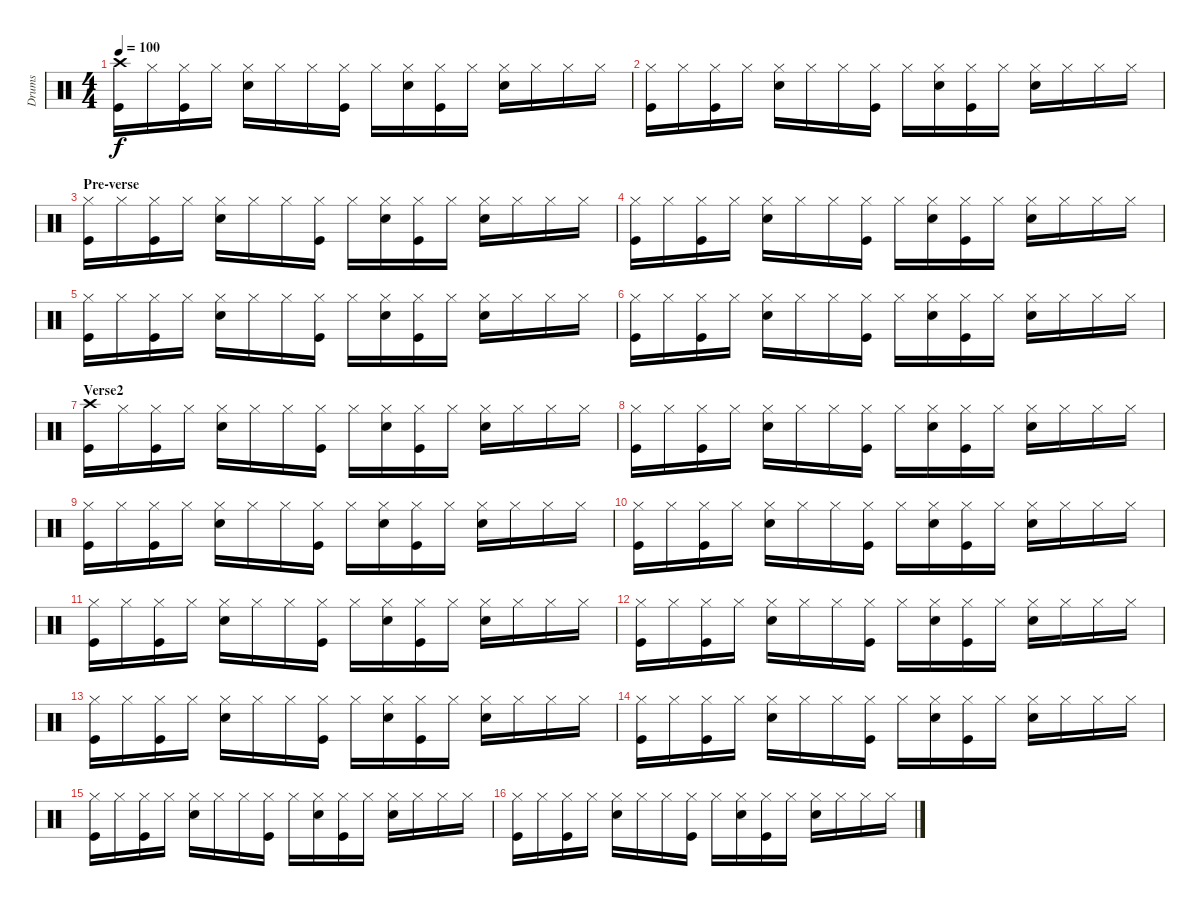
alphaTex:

\track ("Drums" "Drums") {instrument percussion}
\staff {score}
\articulation defaults
\ts (4 4)
\tempo 100
\clef neutral
\ks c
("Crash high (hit)" "Kick (hit)").16{dy f} "Hi-Hat (closed)"{x}.16 ("Hi-Hat (closed)" "Kick (hit)").16 "Hi-Hat (closed)"{x}.16 ("Hi-Hat (closed)" "Electric Snare (hit)").16 "Hi-Hat (closed)"{x}.16 "Hi-Hat (closed)".16 ("Hi-Hat (closed)"{x} "Kick (hit)").16 "Hi-Hat (closed)".16 ("Hi-Hat (closed)"{x} "Electric Snare (hit)").16 ("Hi-Hat (closed)" "Kick (hit)").16 "Hi-Hat (closed)"{x}.16 ("Hi-Hat (closed)" "Electric Snare (hit)").16 "Hi-Hat (closed)"{x}.16 "Hi-Hat (closed)".16 "Hi-Hat (closed)"{x}.16 |
("Hi-Hat (closed)" "Kick (hit)").16 "Hi-Hat (closed)"{x}.16 ("Hi-Hat (closed)" "Kick (hit)").16 "Hi-Hat (closed)"{x}.16 ("Hi-Hat (closed)" "Electric Snare (hit)").16 "Hi-Hat (closed)"{x}.16 "Hi-Hat (closed)".16 ("Hi-Hat (closed)"{x} "Kick (hit)").16 "Hi-Hat (closed)".16 ("Hi-Hat (closed)"{x} "Electric Snare (hit)").16 ("Hi-Hat (closed)" "Kick (hit)").16 "Hi-Hat (closed)"{x}.16 ("Hi-Hat (closed)" "Electric Snare (hit)").16 "Hi-Hat (closed)"{x}.16 "Hi-Hat (closed)".16 "Hi-Hat (closed)"{x}.16 |
\section ("" "Pre-verse")
("Hi-Hat (closed)" "Kick (hit)").16 "Hi-Hat (closed)"{x}.16 ("Hi-Hat (closed)" "Kick (hit)").16 "Hi-Hat (closed)"{x}.16 ("Hi-Hat (closed)" "Electric Snare (hit)").16 "Hi-Hat (closed)"{x}.16 "Hi-Hat (closed)".16 ("Hi-Hat (closed)"{x} "Kick (hit)").16 "Hi-Hat (closed)".16 ("Hi-Hat (closed)"{x} "Electric Snare (hit)").16 ("Hi-Hat (closed)" "Kick (hit)").16 "Hi-Hat (closed)"{x}.16 ("Hi-Hat (closed)" "Electric Snare (hit)").16 "Hi-Hat (closed)"{x}.16 "Hi-Hat (closed)".16 "Hi-Hat (closed)"{x}.16 |
("Hi-Hat (closed)" "Kick (hit)").16 "Hi-Hat (closed)"{x}.16 ("Hi-Hat (closed)" "Kick (hit)").16 "Hi-Hat (closed)"{x}.16 ("Hi-Hat (closed)" "Electric Snare (hit)").16 "Hi-Hat (closed)"{x}.16 "Hi-Hat (closed)".16 ("Hi-Hat (closed)"{x} "Kick (hit)").16 "Hi-Hat (closed)".16 ("Hi-Hat (closed)"{x} "Electric Snare (hit)").16 ("Hi-Hat (closed)" "Kick (hit)").16 "Hi-Hat (closed)"{x}.16 ("Hi-Hat (closed)" "Electric Snare (hit)").16 "Hi-Hat (closed)"{x}.16 "Hi-Hat (closed)".16 "Hi-Hat (closed)"{x}.16 |
("Hi-Hat (closed)" "Kick (hit)").16 "Hi-Hat (closed)"{x}.16 ("Hi-Hat (closed)" "Kick (hit)").16 "Hi-Hat (closed)"{x}.16 ("Hi-Hat (closed)" "Electric Snare (hit)").16 "Hi-Hat (closed)"{x}.16 "Hi-Hat (closed)".16 ("Hi-Hat (closed)"{x} "Kick (hit)").16 "Hi-Hat (closed)".16 ("Hi-Hat (closed)"{x} "Electric Snare (hit)").16 ("Hi-Hat (closed)" "Kick (hit)").16 "Hi-Hat (closed)"{x}.16 ("Hi-Hat (closed)" "Electric Snare (hit)").16 "Hi-Hat (closed)"{x}.16 "Hi-Hat (closed)".16 "Hi-Hat (closed)"{x}.16 |
("Hi-Hat (closed)" "Kick (hit)").16 "Hi-Hat (closed)"{x}.16 ("Hi-Hat (closed)" "Kick (hit)").16 "Hi-Hat (closed)"{x}.16 ("Hi-Hat (closed)" "Electric Snare (hit)").16 "Hi-Hat (closed)"{x}.16 "Hi-Hat (closed)".16 ("Hi-Hat (closed)"{x} "Kick (hit)").16 "Hi-Hat (closed)".16 ("Hi-Hat (closed)"{x} "Electric Snare (hit)").16 ("Hi-Hat (closed)" "Kick (hit)").16 "Hi-Hat (closed)"{x}.16 ("Hi-Hat (closed)" "Electric Snare (hit)").16 "Hi-Hat (closed)"{x}.16 "Hi-Hat (closed)".16 "Hi-Hat (closed)"{x}.16 |
\section ("" "Verse2")
("Crash high (hit)" "Kick (hit)").16 "Hi-Hat (closed)"{x}.16 ("Hi-Hat (closed)" "Kick (hit)").16 "Hi-Hat (closed)"{x}.16 ("Hi-Hat (closed)" "Electric Snare (hit)").16 "Hi-Hat (closed)"{x}.16 "Hi-Hat (closed)".16 ("Hi-Hat (closed)"{x} "Kick (hit)").16 "Hi-Hat (closed)".16 ("Hi-Hat (closed)"{x} "Electric Snare (hit)").16 ("Hi-Hat (closed)" "Kick (hit)").16 "Hi-Hat (closed)"{x}.16 ("Hi-Hat (closed)" "Electric Snare (hit)").16 "Hi-Hat (closed)"{x}.16 "Hi-Hat (closed)".16 "Hi-Hat (closed)"{x}.16 |
("Hi-Hat (closed)" "Kick (hit)").16 "Hi-Hat (closed)"{x}.16 ("Hi-Hat (closed)" "Kick (hit)").16 "Hi-Hat (closed)"{x}.16 ("Hi-Hat (closed)" "Electric Snare (hit)").16 "Hi-Hat (closed)"{x}.16 "Hi-Hat (closed)".16 ("Hi-Hat (closed)"{x} "Kick (hit)").16 "Hi-Hat (closed)".16 ("Hi-Hat (closed)"{x} "Electric Snare (hit)").16 ("Hi-Hat (closed)" "Kick (hit)").16 "Hi-Hat (closed)"{x}.16 ("Hi-Hat (closed)" "Electric Snare (hit)").16 "Hi-Hat (closed)"{x}.16 "Hi-Hat (closed)".16 "Hi-Hat (closed)"{x}.16 |
("Hi-Hat (closed)" "Kick (hit)").16 "Hi-Hat (closed)"{x}.16 ("Hi-Hat (closed)" "Kick (hit)").16 "Hi-Hat (closed)"{x}.16 ("Hi-Hat (closed)" "Electric Snare (hit)").16 "Hi-Hat (closed)"{x}.16 "Hi-Hat (closed)".16 ("Hi-Hat (closed)"{x} "Kick (hit)").16 "Hi-Hat (closed)".16 ("Hi-Hat (closed)"{x} "Electric Snare (hit)").16 ("Hi-Hat (closed)" "Kick (hit)").16 "Hi-Hat (closed)"{x}.16 ("Hi-Hat (closed)" "Electric Snare (hit)").16 "Hi-Hat (closed)"{x}.16 "Hi-Hat (closed)".16 "Hi-Hat (closed)"{x}.16 |
("Hi-Hat (closed)" "Kick (hit)").16 "Hi-Hat (closed)"{x}.16 ("Hi-Hat (closed)" "Kick (hit)").16 "Hi-Hat (closed)"{x}.16 ("Hi-Hat (closed)" "Electric Snare (hit)").16 "Hi-Hat (closed)"{x}.16 "Hi-Hat (closed)".16 ("Hi-Hat (closed)"{x} "Kick (hit)").16 "Hi-Hat (closed)".16 ("Hi-Hat (closed)"{x} "Electric Snare (hit)").16 ("Hi-Hat (closed)" "Kick (hit)").16 "Hi-Hat (closed)"{x}.16 ("Hi-Hat (closed)" "Electric Snare (hit)").16 "Hi-Hat (closed)"{x}.16 "Hi-Hat (closed)".16 "Hi-Hat (closed)"{x}.16 |
("Hi-Hat (closed)" "Kick (hit)").16 "Hi-Hat (closed)"{x}.16 ("Hi-Hat (closed)" "Kick (hit)").16 "Hi-Hat (closed)"{x}.16 ("Hi-Hat (closed)" "Electric Snare (hit)").16 "Hi-Hat (closed)"{x}.16 "Hi-Hat (closed)".16 ("Hi-Hat (closed)"{x} "Kick (hit)").16 "Hi-Hat (closed)".16 ("Hi-Hat (closed)"{x} "Electric Snare (hit)").16 ("Hi-Hat (closed)" "Kick (hit)").16 "Hi-Hat (closed)"{x}.16 ("Hi-Hat (closed)" "Electric Snare (hit)").16 "Hi-Hat (closed)"{x}.16 "Hi-Hat (closed)".16 "Hi-Hat (closed)"{x}.16 |
("Hi-Hat (closed)" "Kick (hit)").16 "Hi-Hat (closed)"{x}.16 ("Hi-Hat (closed)" "Kick (hit)").16 "Hi-Hat (closed)"{x}.16 ("Hi-Hat (closed)" "Electric Snare (hit)").16 "Hi-Hat (closed)"{x}.16 "Hi-Hat (closed)".16 ("Hi-Hat (closed)"{x} "Kick (hit)").16 "Hi-Hat (closed)".16 ("Hi-Hat (closed)"{x} "Electric Snare (hit)").16 ("Hi-Hat (closed)" "Kick (hit)").16 "Hi-Hat (closed)"{x}.16 ("Hi-Hat (closed)" "Electric Snare (hit)").16 "Hi-Hat (closed)"{x}.16 "Hi-Hat (closed)".16 "Hi-Hat (closed)"{x}.16 |
("Hi-Hat (closed)" "Kick (hit)").16 "Hi-Hat (closed)"{x}.16 ("Hi-Hat (closed)" "Kick (hit)").16 "Hi-Hat (closed)"{x}.16 ("Hi-Hat (closed)" "Electric Snare (hit)").16 "Hi-Hat (closed)"{x}.16 "Hi-Hat (closed)".16 ("Hi-Hat (closed)"{x} "Kick (hit)").16 "Hi-Hat (closed)".16 ("Hi-Hat (closed)"{x} "Electric Snare (hit)").16 ("Hi-Hat (closed)" "Kick (hit)").16 "Hi-Hat (closed)"{x}.16 ("Hi-Hat (closed)" "Electric Snare (hit)").16 "Hi-Hat (closed)"{x}.16 "Hi-Hat (closed)".16 "Hi-Hat (closed)"{x}.16 |
("Hi-Hat (closed)" "Kick (hit)").16 "Hi-Hat (closed)"{x}.16 ("Hi-Hat (closed)" "Kick (hit)").16 "Hi-Hat (closed)"{x}.16 ("Hi-Hat (closed)" "Electric Snare (hit)").16 "Hi-Hat (closed)"{x}.16 "Hi-Hat (closed)".16 ("Hi-Hat (closed)"{x} "Kick (hit)").16 "Hi-Hat (closed)".16 ("Hi-Hat (closed)"{x} "Electric Snare (hit)").16 ("Hi-Hat (closed)" "Kick (hit)").16 "Hi-Hat (closed)"{x}.16 ("Hi-Hat (closed)" "Electric Snare (hit)").16 "Hi-Hat (closed)"{x}.16 "Hi-Hat (closed)".16 "Hi-Hat (closed)"{x}.16 |
("Hi-Hat (closed)" "Kick (hit)").16 "Hi-Hat (closed)"{x}.16 ("Hi-Hat (closed)" "Kick (hit)").16 "Hi-Hat (closed)"{x}.16 ("Hi-Hat (closed)" "Electric Snare (hit)").16 "Hi-Hat (closed)"{x}.16 "Hi-Hat (closed)".16 ("Hi-Hat (closed)"{x} "Kick (hit)").16 "Hi-Hat (closed)".16 ("Hi-Hat (closed)"{x} "Electric Snare (hit)").16 ("Hi-Hat (closed)" "Kick (hit)").16 "Hi-Hat (closed)"{x}.16 ("Hi-Hat (closed)" "Electric Snare (hit)").16 "Hi-Hat (closed)"{x}.16 "Hi-Hat (closed)".16 "Hi-Hat (closed)"{x}.16 |
("Hi-Hat (closed)" "Kick (hit)").16 "Hi-Hat (closed)"{x}.16 ("Hi-Hat (closed)" "Kick (hit)").16 "Hi-Hat (closed)"{x}.16 ("Hi-Hat (closed)" "Electric Snare (hit)").16 "Hi-Hat (closed)"{x}.16 "Hi-Hat (closed)".16 ("Hi-Hat (closed)"{x} "Kick (hit)").16 "Hi-Hat (closed)".16 ("Hi-Hat (closed)"{x} "Electric Snare (hit)").16 ("Hi-Hat (closed)" "Kick (hit)").16 "Hi-Hat (closed)"{x}.16 ("Hi-Hat (closed)" "Electric Snare (hit)").16 "Hi-Hat (closed)"{x}.16 "Hi-Hat (closed)".16 "Hi-Hat (closed)"{x}.16
